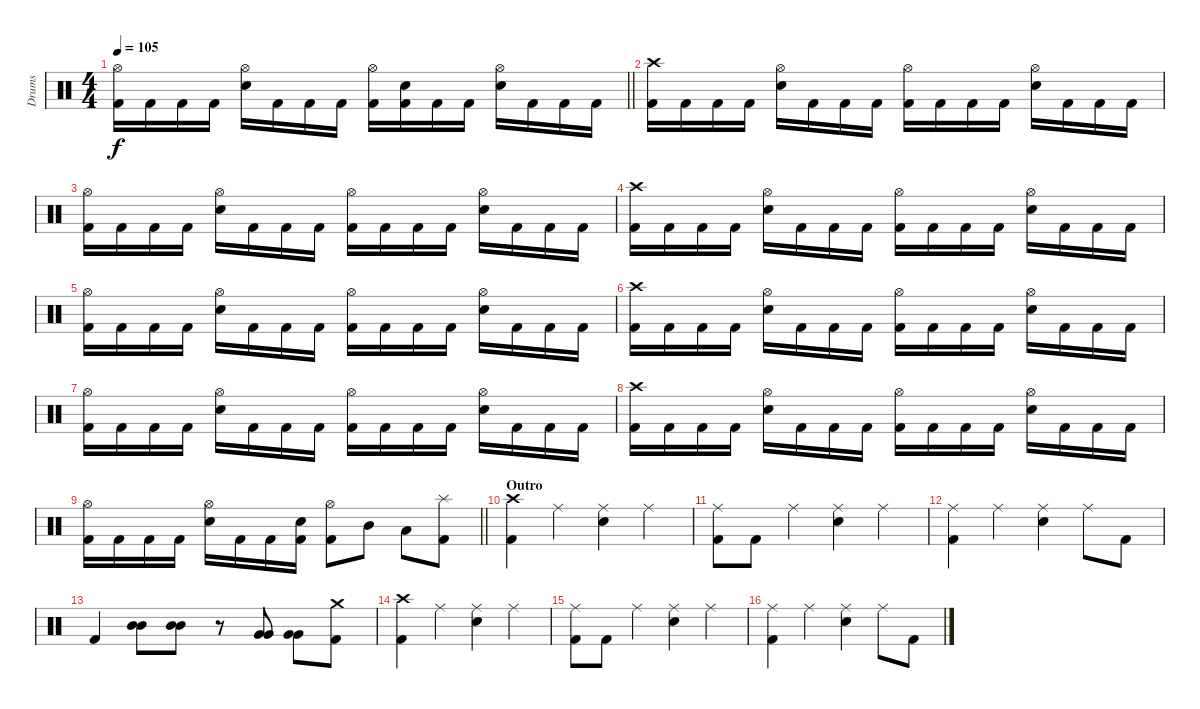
\track ("Drums" "Drums") {instrument percussion}
\staff {score}
\articulation defaults
\ts (4 4)
\tempo 105
\clef neutral
\barLineRight lightlight
\ks c
("Hi-Hat (open)" "Kick (hit) 2").16{dy f} "Kick (hit) 2".16 "Kick (hit) 2".16 "Kick (hit) 2".16 ("Hi-Hat (open)" "Electric Snare (hit)").16 "Kick (hit) 2".16 "Kick (hit) 2".16 "Kick (hit) 2".16 ("Hi-Hat (open)" "Kick (hit) 2").16 ("Electric Snare (hit)" "Kick (hit) 2").16 "Kick (hit) 2".16 "Kick (hit) 2".16 ("Hi-Hat (open)" "Electric Snare (hit)").16 "Kick (hit) 2".16 "Kick (hit) 2".16 "Kick (hit) 2".16 |
("Crash high (hit)" "Kick (hit) 2").16 "Kick (hit) 2".16 "Kick (hit) 2".16 "Kick (hit) 2".16 ("Hi-Hat (open)" "Electric Snare (hit)").16 "Kick (hit) 2".16 "Kick (hit) 2".16 "Kick (hit) 2".16 ("Hi-Hat (open)" "Kick (hit) 2").16 "Kick (hit) 2".16 "Kick (hit) 2".16 "Kick (hit) 2".16 ("Hi-Hat (open)" "Electric Snare (hit)").16 "Kick (hit) 2".16 "Kick (hit) 2".16 "Kick (hit) 2".16 |
("Hi-Hat (open)" "Kick (hit) 2").16 "Kick (hit) 2".16 "Kick (hit) 2".16 "Kick (hit) 2".16 ("Hi-Hat (open)" "Electric Snare (hit)").16 "Kick (hit) 2".16 "Kick (hit) 2".16 "Kick (hit) 2".16 ("Hi-Hat (open)" "Kick (hit) 2").16 "Kick (hit) 2".16 "Kick (hit) 2".16 "Kick (hit) 2".16 ("Hi-Hat (open)" "Electric Snare (hit)").16 "Kick (hit) 2".16 "Kick (hit) 2".16 "Kick (hit) 2".16 |
("Crash high (hit)" "Kick (hit) 2").16 "Kick (hit) 2".16 "Kick (hit) 2".16 "Kick (hit) 2".16 ("Hi-Hat (open)" "Electric Snare (hit)").16 "Kick (hit) 2".16 "Kick (hit) 2".16 "Kick (hit) 2".16 ("Hi-Hat (open)" "Kick (hit) 2").16 "Kick (hit) 2".16 "Kick (hit) 2".16 "Kick (hit) 2".16 ("Hi-Hat (open)" "Electric Snare (hit)").16 "Kick (hit) 2".16 "Kick (hit) 2".16 "Kick (hit) 2".16 |
("Hi-Hat (open)" "Kick (hit) 2").16 "Kick (hit) 2".16 "Kick (hit) 2".16 "Kick (hit) 2".16 ("Hi-Hat (open)" "Electric Snare (hit)").16 "Kick (hit) 2".16 "Kick (hit) 2".16 "Kick (hit) 2".16 ("Hi-Hat (open)" "Kick (hit) 2").16 "Kick (hit) 2".16 "Kick (hit) 2".16 "Kick (hit) 2".16 ("Hi-Hat (open)" "Electric Snare (hit)").16 "Kick (hit) 2".16 "Kick (hit) 2".16 "Kick (hit) 2".16 |
("Crash high (hit)" "Kick (hit) 2").16 "Kick (hit) 2".16 "Kick (hit) 2".16 "Kick (hit) 2".16 ("Hi-Hat (open)" "Electric Snare (hit)").16 "Kick (hit) 2".16 "Kick (hit) 2".16 "Kick (hit) 2".16 ("Hi-Hat (open)" "Kick (hit) 2").16 "Kick (hit) 2".16 "Kick (hit) 2".16 "Kick (hit) 2".16 ("Hi-Hat (open)" "Electric Snare (hit)").16 "Kick (hit) 2".16 "Kick (hit) 2".16 "Kick (hit) 2".16 |
("Hi-Hat (open)" "Kick (hit) 2").16 "Kick (hit) 2".16 "Kick (hit) 2".16 "Kick (hit) 2".16 ("Hi-Hat (open)" "Electric Snare (hit)").16 "Kick (hit) 2".16 "Kick (hit) 2".16 "Kick (hit) 2".16 ("Hi-Hat (open)" "Kick (hit) 2").16 "Kick (hit) 2".16 "Kick (hit) 2".16 "Kick (hit) 2".16 ("Hi-Hat (open)" "Electric Snare (hit)").16 "Kick (hit) 2".16 "Kick (hit) 2".16 "Kick (hit) 2".16 |
("Crash high (hit)" "Kick (hit) 2").16 "Kick (hit) 2".16 "Kick (hit) 2".16 "Kick (hit) 2".16 ("Hi-Hat (open)" "Electric Snare (hit)").16 "Kick (hit) 2".16 "Kick (hit) 2".16 "Kick (hit) 2".16 ("Hi-Hat (open)" "Kick (hit) 2").16 "Kick (hit) 2".16 "Kick (hit) 2".16 "Kick (hit) 2".16 ("Hi-Hat (open)" "Electric Snare (hit)").16 "Kick (hit) 2".16 "Kick (hit) 2".16 "Kick (hit) 2".16 |
\barLineRight lightlight
("Hi-Hat (open)" "Kick (hit) 2").16 "Kick (hit) 2".16 "Kick (hit) 2".16 "Kick (hit) 2".16 ("Hi-Hat (open)" "Electric Snare (hit)").16 "Kick (hit) 2".16 "Kick (hit) 2".16 ("Electric Snare (hit)" "Kick (hit) 2").16 ("Hi-Hat (open)" "Kick (hit) 2").8 "Mid Tom (hit)".8 "Low Tom (hit)".8 ("Splash (hit)" "Kick (hit) 2").8 |
\section ("" "Outro")
("Crash high (hit)" "Kick (hit) 2").4 "Ride (middle)".4 ("Ride (middle)" "Electric Snare (hit)").4 "Ride (middle)".4 |
("Ride (middle)" "Kick (hit) 2").8 "Kick (hit) 2".8 "Ride (middle)".4 ("Ride (middle)" "Electric Snare (hit)").4 "Ride (middle)".4 |
("Ride (middle)" "Kick (hit) 2").4 "Ride (middle)".4 ("Ride (middle)" "Electric Snare (hit)").4 "Ride (middle)".8 "Kick (hit) 2".8 |
"Kick (hit) 2".4 ("Mid Tom (hit)" "Mid Tom (hit)").8 ("Mid Tom (hit)" "Mid Tom (hit)").8 r.8 ("Very Low Tom (hit)" "Very Low Tom (hit)").8 ("Very Low Tom (hit)" "Very Low Tom (hit)").8 ("Crash medium (hit)" "Kick (hit) 2").8 |
("Crash high (hit)" "Kick (hit) 2").4 "Ride (middle)".4 ("Ride (middle)" "Electric Snare (hit)").4 "Ride (middle)".4 |
("Ride (middle)" "Kick (hit) 2").8 "Kick (hit) 2".8 "Ride (middle)".4 ("Ride (middle)" "Electric Snare (hit)").4 "Ride (middle)".4 |
("Ride (middle)" "Kick (hit) 2").4 "Ride (middle)".4 ("Ride (middle)" "Electric Snare (hit)").4 "Ride (middle)".8 "Kick (hit) 2".8
